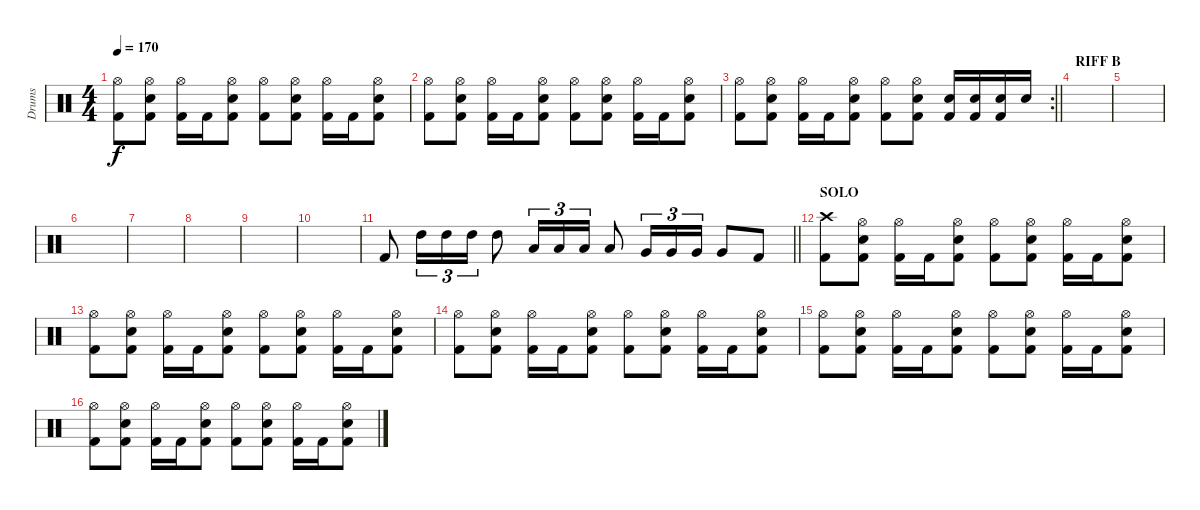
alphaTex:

\track ("Drums" "Drums") {instrument percussion}
\staff {score}
\articulation defaults
\ts (4 4)
\tempo 170
\clef neutral
\ks c
("Hi-Hat (open)" "Kick (hit) 2").8{dy f} ("Hi-Hat (open)" "Snare (hit) 2" "Kick (hit) 2").8 ("Hi-Hat (open)" "Kick (hit) 2").16 "Kick (hit) 2".16 ("Hi-Hat (open)" "Snare (hit) 2" "Kick (hit) 2").8 ("Hi-Hat (open)" "Kick (hit) 2").8 ("Hi-Hat (open)" "Snare (hit) 2" "Kick (hit) 2").8 ("Hi-Hat (open)" "Kick (hit) 2").16 "Kick (hit) 2".16 ("Hi-Hat (open)" "Snare (hit) 2" "Kick (hit) 2").8 |
("Hi-Hat (open)" "Kick (hit) 2").8 ("Hi-Hat (open)" "Snare (hit) 2" "Kick (hit) 2").8 ("Hi-Hat (open)" "Kick (hit) 2").16 "Kick (hit) 2".16 ("Hi-Hat (open)" "Snare (hit) 2" "Kick (hit) 2").8 ("Hi-Hat (open)" "Kick (hit) 2").8 ("Hi-Hat (open)" "Snare (hit) 2" "Kick (hit) 2").8 ("Hi-Hat (open)" "Kick (hit) 2").16 "Kick (hit) 2".16 ("Hi-Hat (open)" "Snare (hit) 2" "Kick (hit) 2").8 |
\rc 2
\barLineRight lightlight
("Hi-Hat (open)" "Kick (hit) 2").8 ("Hi-Hat (open)" "Snare (hit) 2" "Kick (hit) 2").8 ("Hi-Hat (open)" "Kick (hit) 2").16 "Kick (hit) 2".16 ("Hi-Hat (open)" "Snare (hit) 2" "Kick (hit) 2").8 ("Hi-Hat (open)" "Kick (hit) 2").8 ("Hi-Hat (open)" "Snare (hit) 2" "Kick (hit) 2").8 ("Snare (hit) 2" "Kick (hit) 2").16 ("Snare (hit) 2" "Kick (hit) 2").16 ("Snare (hit) 2" "Kick (hit) 2").16 "Snare (hit) 2".16 |
\section ("" "RIFF B")
|
|
|
|
|
|
|
\barLineRight lightlight "Kick (hit) 2".8 "High Tom (hit)".16{tu (3 2)} "High Tom (hit)".16{tu (3 2)} "High Tom (hit)".16{tu (3 2)} "High Tom (hit)".8 "Low Tom (hit)".16{tu (3 2)} "Low Tom (hit)".16{tu (3 2)} "Low Tom (hit)".16{tu (3 2)} "Low Tom (hit)".8 "Very Low Tom (hit)".16{tu (3 2)} "Very Low Tom (hit)".16{tu (3 2)} "Very Low Tom (hit)".16{tu (3 2)} "Very Low Tom (hit)".8 "Kick (hit) 2".8
|
\section ("" "SOLO")
("Crash high (hit)" "Kick (hit) 2").8 ("Hi-Hat (open)" "Snare (hit) 2" "Kick (hit) 2").8 ("Hi-Hat (open)" "Kick (hit) 2").16 "Kick (hit) 2".16 ("Hi-Hat (open)" "Snare (hit) 2" "Kick (hit) 2").8 ("Hi-Hat (open)" "Kick (hit) 2").8 ("Hi-Hat (open)" "Snare (hit) 2" "Kick (hit) 2").8 ("Hi-Hat (open)" "Kick (hit) 2").16 "Kick (hit) 2".16 ("Hi-Hat (open)" "Snare (hit) 2" "Kick (hit) 2").8 |
("Hi-Hat (open)" "Kick (hit) 2").8 ("Hi-Hat (open)" "Snare (hit) 2" "Kick (hit) 2").8 ("Hi-Hat (open)" "Kick (hit) 2").16 "Kick (hit) 2".16 ("Hi-Hat (open)" "Snare (hit) 2" "Kick (hit) 2").8 ("Hi-Hat (open)" "Kick (hit) 2").8 ("Hi-Hat (open)" "Snare (hit) 2" "Kick (hit) 2").8 ("Hi-Hat (open)" "Kick (hit) 2").16 "Kick (hit) 2".16 ("Hi-Hat (open)" "Snare (hit) 2" "Kick (hit) 2").8 |
("Hi-Hat (open)" "Kick (hit) 2").8 ("Hi-Hat (open)" "Snare (hit) 2" "Kick (hit) 2").8 ("Hi-Hat (open)" "Kick (hit) 2").16 "Kick (hit) 2".16 ("Hi-Hat (open)" "Snare (hit) 2" "Kick (hit) 2").8 ("Hi-Hat (open)" "Kick (hit) 2").8 ("Hi-Hat (open)" "Snare (hit) 2" "Kick (hit) 2").8 ("Hi-Hat (open)" "Kick (hit) 2").16 "Kick (hit) 2".16 ("Hi-Hat (open)" "Snare (hit) 2" "Kick (hit) 2").8 |
("Hi-Hat (open)" "Kick (hit) 2").8 ("Hi-Hat (open)" "Snare (hit) 2" "Kick (hit) 2").8 ("Hi-Hat (open)" "Kick (hit) 2").16 "Kick (hit) 2".16 ("Hi-Hat (open)" "Snare (hit) 2" "Kick (hit) 2").8 ("Hi-Hat (open)" "Kick (hit) 2").8 ("Hi-Hat (open)" "Snare (hit) 2" "Kick (hit) 2").8 ("Hi-Hat (open)" "Kick (hit) 2").16 "Kick (hit) 2".16 ("Hi-Hat (open)" "Snare (hit) 2" "Kick (hit) 2").8 |
("Hi-Hat (open)" "Kick (hit) 2").8 ("Hi-Hat (open)" "Snare (hit) 2" "Kick (hit) 2").8 ("Hi-Hat (open)" "Kick (hit) 2").16 "Kick (hit) 2".16 ("Hi-Hat (open)" "Snare (hit) 2" "Kick (hit) 2").8 ("Hi-Hat (open)" "Kick (hit) 2").8 ("Hi-Hat (open)" "Snare (hit) 2" "Kick (hit) 2").8 ("Hi-Hat (open)" "Kick (hit) 2").16 "Kick (hit) 2".16 ("Hi-Hat (open)" "Snare (hit) 2" "Kick (hit) 2").8
